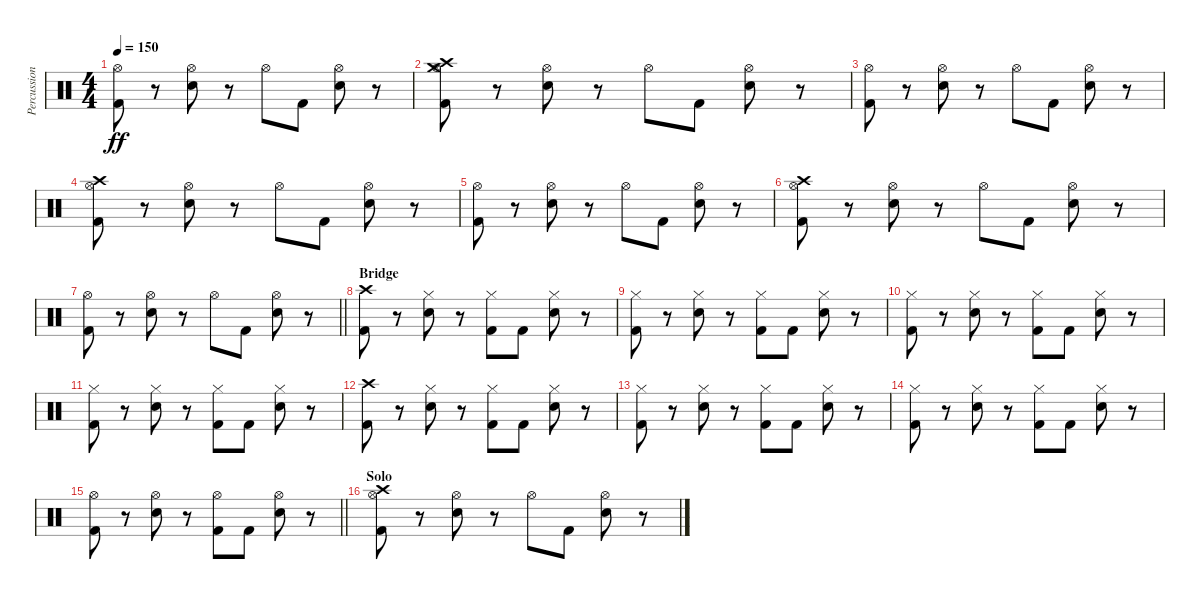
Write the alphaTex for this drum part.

\track ("Percussion" "Percussion") {instrument percussion}
\staff {score}
\articulation defaults
\ts (4 4)
\tempo 150
\clef neutral
\ks c
("Hi-Hat (open)" "Kick (hit) 2").8{dy ff} r.8 ("Hi-Hat (open)" "Snare (hit) 2").8 r.8 "Hi-Hat (open)".8 "Kick (hit) 2".8 ("Hi-Hat (open)" "Snare (hit) 2").8 r.8 |
("Hi-Hat (open)" "Crash high (hit)" "Crash medium (hit)" "Kick (hit) 2").8 r.8 ("Hi-Hat (open)" "Snare (hit) 2").8 r.8 "Hi-Hat (open)".8 "Kick (hit) 2".8 ("Hi-Hat (open)" "Snare (hit) 2").8 r.8 |
("Hi-Hat (open)" "Kick (hit) 2").8 r.8 ("Hi-Hat (open)" "Snare (hit) 2").8 r.8 "Hi-Hat (open)".8 "Kick (hit) 2".8 ("Hi-Hat (open)" "Snare (hit) 2").8 r.8 |
("Hi-Hat (open)" "Crash high (hit)" "Kick (hit) 2").8 r.8 ("Hi-Hat (open)" "Snare (hit) 2").8 r.8 "Hi-Hat (open)".8 "Kick (hit) 2".8 ("Hi-Hat (open)" "Snare (hit) 2").8 r.8 |
("Hi-Hat (open)" "Kick (hit) 2").8 r.8 ("Hi-Hat (open)" "Snare (hit) 2").8 r.8 "Hi-Hat (open)".8 "Kick (hit) 2".8 ("Hi-Hat (open)" "Snare (hit) 2").8 r.8 |
("Hi-Hat (open)" "Crash high (hit)" "Kick (hit) 2").8 r.8 ("Hi-Hat (open)" "Snare (hit) 2").8 r.8 "Hi-Hat (open)".8 "Kick (hit) 2".8 ("Hi-Hat (open)" "Snare (hit) 2").8 r.8 |
\barLineRight lightlight
("Hi-Hat (open)" "Kick (hit) 2").8 r.8 ("Hi-Hat (open)" "Snare (hit) 2").8 r.8 "Hi-Hat (open)".8 "Kick (hit) 2".8 ("Hi-Hat (open)" "Snare (hit) 2").8 r.8 |
\section ("" "Bridge")
("Crash high (hit)" "Kick (hit) 2").8 r.8 ("Hi-Hat (closed)" "Snare (hit) 2").8 r.8 ("Hi-Hat (closed)" "Kick (hit) 2").8 "Kick (hit) 2".8 ("Hi-Hat (closed)" "Snare (hit) 2").8 r.8 |
("Hi-Hat (closed)" "Kick (hit) 2").8 r.8 ("Hi-Hat (closed)" "Snare (hit) 2").8 r.8 ("Hi-Hat (closed)" "Kick (hit) 2").8 "Kick (hit) 2".8 ("Hi-Hat (closed)" "Snare (hit) 2").8 r.8 |
("Hi-Hat (closed)" "Kick (hit) 2").8 r.8 ("Hi-Hat (closed)" "Snare (hit) 2").8 r.8 ("Hi-Hat (closed)" "Kick (hit) 2").8 "Kick (hit) 2".8 ("Hi-Hat (closed)" "Snare (hit) 2").8 r.8 |
("Hi-Hat (closed)" "Kick (hit) 2").8 r.8 ("Hi-Hat (closed)" "Snare (hit) 2").8 r.8 ("Hi-Hat (closed)" "Kick (hit) 2").8 "Kick (hit) 2".8 ("Hi-Hat (closed)" "Snare (hit) 2").8 r.8 |
("Crash high (hit)" "Kick (hit) 2").8 r.8 ("Hi-Hat (closed)" "Snare (hit) 2").8 r.8 ("Hi-Hat (closed)" "Kick (hit) 2").8 "Kick (hit) 2".8 ("Hi-Hat (closed)" "Snare (hit) 2").8 r.8 |
("Hi-Hat (closed)" "Kick (hit) 2").8 r.8 ("Hi-Hat (closed)" "Snare (hit) 2").8 r.8 ("Hi-Hat (closed)" "Kick (hit) 2").8 "Kick (hit) 2".8 ("Hi-Hat (closed)" "Snare (hit) 2").8 r.8 |
("Hi-Hat (closed)" "Kick (hit) 2").8 r.8 ("Hi-Hat (closed)" "Snare (hit) 2").8 r.8 ("Hi-Hat (closed)" "Kick (hit) 2").8 "Kick (hit) 2".8 ("Hi-Hat (closed)" "Snare (hit) 2").8 r.8 |
\barLineRight lightlight
("Hi-Hat (open)" "Kick (hit) 2").8 r.8 ("Hi-Hat (open)" "Snare (hit) 2").8 r.8 ("Hi-Hat (open)" "Kick (hit) 2").8 "Kick (hit) 2".8 ("Hi-Hat (open)" "Snare (hit) 2").8 r.8 |
\section ("" "Solo")
("Hi-Hat (open)" "Crash high (hit)" "Kick (hit) 2").8 r.8 ("Hi-Hat (open)" "Snare (hit) 2").8 r.8 "Hi-Hat (open)".8 "Kick (hit) 2".8 ("Hi-Hat (open)" "Snare (hit) 2").8 r.8
